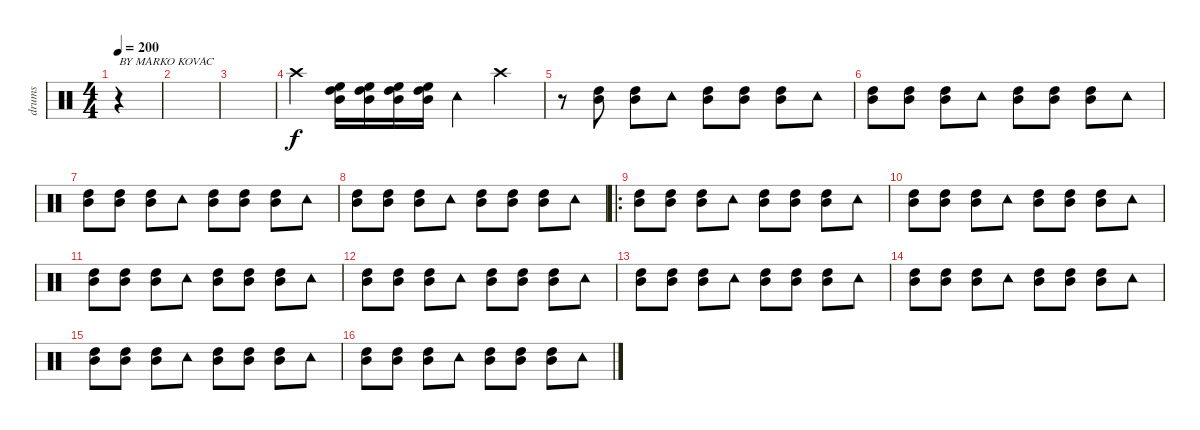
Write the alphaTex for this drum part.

\track ("drums" "drums") {instrument percussion}
\staff {score}
\articulation defaults
\ts (4 4)
\tempo 200
\clef neutral
\ks c
r.4{txt "BY MARKO KOVAC" dy f} |
|
|
"Crash high (hit)".4 ("Mid Tom (hit)" "High Tom (hit)" "High Floor Tom (hit)").16 ("Mid Tom (hit)" "High Tom (hit)" "High Floor Tom (hit)").16 ("Mid Tom (hit)" "High Tom (hit)" "High Floor Tom (hit)").16 ("Mid Tom (hit)" "High Tom (hit)" "High Floor Tom (hit)").16 "Tambourine (hit)".4 "Crash high (hit)".4 |
r.8 ("Mid Tom (hit)" "High Tom (hit)").8 ("Mid Tom (hit)" "High Tom (hit)").8 "Tambourine (hit)".8 ("Mid Tom (hit)" "High Tom (hit)").8 ("Mid Tom (hit)" "High Tom (hit)").8 ("Mid Tom (hit)" "High Tom (hit)").8 "Tambourine (hit)".8 |
("Mid Tom (hit)" "High Tom (hit)").8 ("Mid Tom (hit)" "High Tom (hit)").8 ("Mid Tom (hit)" "High Tom (hit)").8 "Tambourine (hit)".8 ("Mid Tom (hit)" "High Tom (hit)").8 ("Mid Tom (hit)" "High Tom (hit)").8 ("Mid Tom (hit)" "High Tom (hit)").8 "Tambourine (hit)".8 |
("Mid Tom (hit)" "High Tom (hit)").8 ("Mid Tom (hit)" "High Tom (hit)").8 ("Mid Tom (hit)" "High Tom (hit)").8 "Tambourine (hit)".8 ("Mid Tom (hit)" "High Tom (hit)").8 ("Mid Tom (hit)" "High Tom (hit)").8 ("Mid Tom (hit)" "High Tom (hit)").8 "Tambourine (hit)".8 |
("Mid Tom (hit)" "High Tom (hit)").8 ("Mid Tom (hit)" "High Tom (hit)").8 ("Mid Tom (hit)" "High Tom (hit)").8 "Tambourine (hit)".8 ("Mid Tom (hit)" "High Tom (hit)").8 ("Mid Tom (hit)" "High Tom (hit)").8 ("Mid Tom (hit)" "High Tom (hit)").8 "Tambourine (hit)".8 |
\ro
("Mid Tom (hit)" "High Tom (hit)").8 ("Mid Tom (hit)" "High Tom (hit)").8 ("Mid Tom (hit)" "High Tom (hit)").8 "Tambourine (hit)".8 ("Mid Tom (hit)" "High Tom (hit)").8 ("Mid Tom (hit)" "High Tom (hit)").8 ("Mid Tom (hit)" "High Tom (hit)").8 "Tambourine (hit)".8 |
("Mid Tom (hit)" "High Tom (hit)").8 ("Mid Tom (hit)" "High Tom (hit)").8 ("Mid Tom (hit)" "High Tom (hit)").8 "Tambourine (hit)".8 ("Mid Tom (hit)" "High Tom (hit)").8 ("Mid Tom (hit)" "High Tom (hit)").8 ("Mid Tom (hit)" "High Tom (hit)").8 "Tambourine (hit)".8 |
("Mid Tom (hit)" "High Tom (hit)").8 ("Mid Tom (hit)" "High Tom (hit)").8 ("Mid Tom (hit)" "High Tom (hit)").8 "Tambourine (hit)".8 ("Mid Tom (hit)" "High Tom (hit)").8 ("Mid Tom (hit)" "High Tom (hit)").8 ("Mid Tom (hit)" "High Tom (hit)").8 "Tambourine (hit)".8 |
("Mid Tom (hit)" "High Tom (hit)").8 ("Mid Tom (hit)" "High Tom (hit)").8 ("Mid Tom (hit)" "High Tom (hit)").8 "Tambourine (hit)".8 ("Mid Tom (hit)" "High Tom (hit)").8 ("Mid Tom (hit)" "High Tom (hit)").8 ("Mid Tom (hit)" "High Tom (hit)").8 "Tambourine (hit)".8 |
("Mid Tom (hit)" "High Tom (hit)").8 ("Mid Tom (hit)" "High Tom (hit)").8 ("Mid Tom (hit)" "High Tom (hit)").8 "Tambourine (hit)".8 ("Mid Tom (hit)" "High Tom (hit)").8 ("Mid Tom (hit)" "High Tom (hit)").8 ("Mid Tom (hit)" "High Tom (hit)").8 "Tambourine (hit)".8 |
("Mid Tom (hit)" "High Tom (hit)").8 ("Mid Tom (hit)" "High Tom (hit)").8 ("Mid Tom (hit)" "High Tom (hit)").8 "Tambourine (hit)".8 ("Mid Tom (hit)" "High Tom (hit)").8 ("Mid Tom (hit)" "High Tom (hit)").8 ("Mid Tom (hit)" "High Tom (hit)").8 "Tambourine (hit)".8 |
("Mid Tom (hit)" "High Tom (hit)").8 ("Mid Tom (hit)" "High Tom (hit)").8 ("Mid Tom (hit)" "High Tom (hit)").8 "Tambourine (hit)".8 ("Mid Tom (hit)" "High Tom (hit)").8 ("Mid Tom (hit)" "High Tom (hit)").8 ("Mid Tom (hit)" "High Tom (hit)").8 "Tambourine (hit)".8 |
("Mid Tom (hit)" "High Tom (hit)").8 ("Mid Tom (hit)" "High Tom (hit)").8 ("Mid Tom (hit)" "High Tom (hit)").8 "Tambourine (hit)".8 ("Mid Tom (hit)" "High Tom (hit)").8 ("Mid Tom (hit)" "High Tom (hit)").8 ("Mid Tom (hit)" "High Tom (hit)").8 "Tambourine (hit)".8
